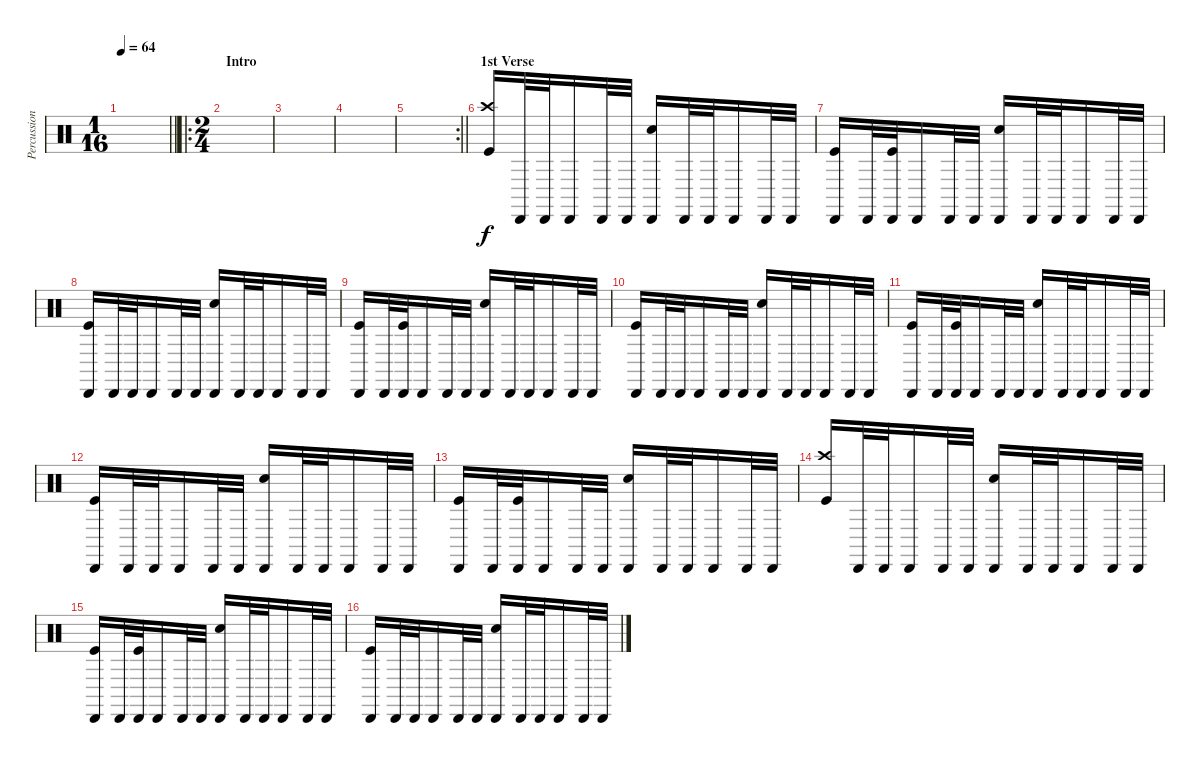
\track ("Percussion" "Percussion") {instrument percussion}
\staff {score}
\articulation defaults
\ts (1 16)
\tempo 64
\clef neutral
\barLineRight lightlight
\ks c
|
\ro
\ts (2 4)
\section ("" "Intro")
|
|
|
\rc 2
\barLineRight lightlight
|
\section ("" "1st Verse")
("Crash high (hit)" "Kick (hit)").16 "Cabasa (hit)".32 "Cabasa (hit)".32 "Cabasa (hit)".16 "Cabasa (hit)".32 "Cabasa (hit)".32 ("Cabasa (hit)" "Electric Snare (hit)").16 "Cabasa (hit)".32 "Cabasa (hit)".32 "Cabasa (hit)".16 "Cabasa (hit)".32 "Cabasa (hit)".32 |
("Cabasa (hit)" "Kick (hit)").16 "Cabasa (hit)".32 ("Cabasa (hit)" "Kick (hit)").32 "Cabasa (hit)".16 "Cabasa (hit)".32 "Cabasa (hit)".32 ("Cabasa (hit)" "Electric Snare (hit)").16 "Cabasa (hit)".32 "Cabasa (hit)".32 "Cabasa (hit)".16 "Cabasa (hit)".32 "Cabasa (hit)".32 |
("Cabasa (hit)" "Kick (hit)").16 "Cabasa (hit)".32 "Cabasa (hit)".32 "Cabasa (hit)".16 "Cabasa (hit)".32 "Cabasa (hit)".32 ("Cabasa (hit)" "Electric Snare (hit)").16 "Cabasa (hit)".32 "Cabasa (hit)".32 "Cabasa (hit)".16 "Cabasa (hit)".32 "Cabasa (hit)".32 |
("Cabasa (hit)" "Kick (hit)").16 "Cabasa (hit)".32 ("Cabasa (hit)" "Kick (hit)").32 "Cabasa (hit)".16 "Cabasa (hit)".32 "Cabasa (hit)".32 ("Cabasa (hit)" "Electric Snare (hit)").16 "Cabasa (hit)".32 "Cabasa (hit)".32 "Cabasa (hit)".16 "Cabasa (hit)".32 "Cabasa (hit)".32 |
("Cabasa (hit)" "Kick (hit)").16 "Cabasa (hit)".32 "Cabasa (hit)".32 "Cabasa (hit)".16 "Cabasa (hit)".32 "Cabasa (hit)".32 ("Cabasa (hit)" "Electric Snare (hit)").16 "Cabasa (hit)".32 "Cabasa (hit)".32 "Cabasa (hit)".16 "Cabasa (hit)".32 "Cabasa (hit)".32 |
("Cabasa (hit)" "Kick (hit)").16 "Cabasa (hit)".32 ("Cabasa (hit)" "Kick (hit)").32 "Cabasa (hit)".16 "Cabasa (hit)".32 "Cabasa (hit)".32 ("Cabasa (hit)" "Electric Snare (hit)").16 "Cabasa (hit)".32 "Cabasa (hit)".32 "Cabasa (hit)".16 "Cabasa (hit)".32 "Cabasa (hit)".32 |
("Cabasa (hit)" "Kick (hit)").16 "Cabasa (hit)".32 "Cabasa (hit)".32 "Cabasa (hit)".16 "Cabasa (hit)".32 "Cabasa (hit)".32 ("Cabasa (hit)" "Electric Snare (hit)").16 "Cabasa (hit)".32 "Cabasa (hit)".32 "Cabasa (hit)".16 "Cabasa (hit)".32 "Cabasa (hit)".32 |
("Cabasa (hit)" "Kick (hit)").16 "Cabasa (hit)".32 ("Cabasa (hit)" "Kick (hit)").32 "Cabasa (hit)".16 "Cabasa (hit)".32 "Cabasa (hit)".32 ("Cabasa (hit)" "Electric Snare (hit)").16 "Cabasa (hit)".32 "Cabasa (hit)".32 "Cabasa (hit)".16 "Cabasa (hit)".32 "Cabasa (hit)".32 |
("Crash high (hit)" "Kick (hit)").16 "Cabasa (hit)".32 "Cabasa (hit)".32 "Cabasa (hit)".16 "Cabasa (hit)".32 "Cabasa (hit)".32 ("Cabasa (hit)" "Electric Snare (hit)").16 "Cabasa (hit)".32 "Cabasa (hit)".32 "Cabasa (hit)".16 "Cabasa (hit)".32 "Cabasa (hit)".32 |
("Cabasa (hit)" "Kick (hit)").16 "Cabasa (hit)".32 ("Cabasa (hit)" "Kick (hit)").32 "Cabasa (hit)".16 "Cabasa (hit)".32 "Cabasa (hit)".32 ("Cabasa (hit)" "Electric Snare (hit)").16 "Cabasa (hit)".32 "Cabasa (hit)".32 "Cabasa (hit)".16 "Cabasa (hit)".32 "Cabasa (hit)".32 |
("Cabasa (hit)" "Kick (hit)").16 "Cabasa (hit)".32 "Cabasa (hit)".32 "Cabasa (hit)".16 "Cabasa (hit)".32 "Cabasa (hit)".32 ("Cabasa (hit)" "Electric Snare (hit)").16 "Cabasa (hit)".32 "Cabasa (hit)".32 "Cabasa (hit)".16 "Cabasa (hit)".32 "Cabasa (hit)".32
